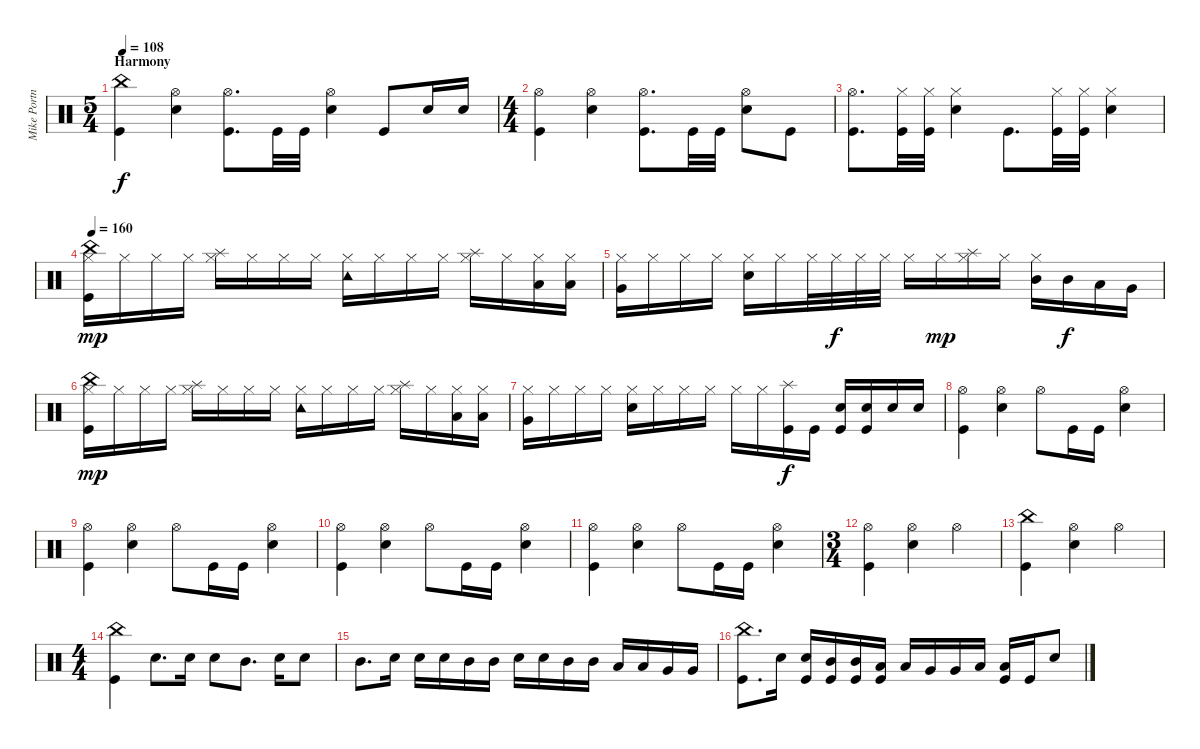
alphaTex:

\track ("Mike Portnoy (Drums)" "Mike Portn") {instrument percussion}
\staff {score}
\articulation defaults
\ts (5 4)
\section ("" "Harmony")
\tempo 108
\clef neutral
\ks c
("Kick (hit)" "China (hit)").4{dy f} ("Snare (hit) 2" "Hi-Hat (open)").4 ("Kick (hit)" "Hi-Hat (open)").8{d} "Kick (hit)".32 "Kick (hit)".32 ("Snare (hit) 2" "Hi-Hat (open)").4 "Kick (hit)".8 "Snare (hit) 2".16 "Snare (hit) 2".16 |
\ts (4 4)
("Kick (hit)" "Hi-Hat (open)").4 ("Snare (hit) 2" "Hi-Hat (open)").4 ("Kick (hit)" "Hi-Hat (open)").8{d} "Kick (hit)".32 "Kick (hit)".32 ("Snare (hit) 2" "Hi-Hat (open)").8 "Kick (hit)".8 |
("Kick (hit)" "Hi-Hat (open)").8{d} ("Kick (hit)" "Hi-Hat (closed)").32 ("Kick (hit)" "Hi-Hat (closed)").32 ("Snare (hit) 2" "Hi-Hat (closed)").4 "Kick (hit)".8{d} ("Kick (hit)" "Hi-Hat (closed)").32 ("Kick (hit)" "Hi-Hat (closed)").32 ("Snare (hit) 2" "Hi-Hat (closed)").4 |
\tempo 160
("Hi-Hat (closed)" "Kick (hit)" "China (hit)").16{dy mp} "Hi-Hat (closed)".16 "Hi-Hat (closed)".16 "Hi-Hat (closed)".16 ("Hi-Hat (closed)" "Splash (hit)").16 "Hi-Hat (closed)".16 "Hi-Hat (closed)".16 "Hi-Hat (closed)".16 ("Hi-Hat (closed)" "Tambourine (hit)").16 "Hi-Hat (closed)".16 "Hi-Hat (closed)".16 "Hi-Hat (closed)".16 ("Hi-Hat (closed)" "Splash (hit)").16 "Hi-Hat (closed)".16 ("Hi-Hat (closed)" "Low Tom (hit)").16 ("Hi-Hat (closed)" "Low Tom (hit)").16 |
("Hi-Hat (closed)" "Very Low Tom (hit)").16 "Hi-Hat (closed)".16 "Hi-Hat (closed)".16 "Hi-Hat (closed)".16 ("Hi-Hat (closed)" "Snare (hit) 2").16 "Hi-Hat (closed)".16 "Hi-Hat (closed)".32 "Hi-Hat (closed)".32{dy f} "Hi-Hat (closed)".32 "Hi-Hat (closed)".32 "Hi-Hat (closed)".16 "Hi-Hat (closed)".16{dy mp} ("Hi-Hat (closed)" "Splash (hit)").16 "Hi-Hat (closed)".16 ("Hi-Hat (closed)" "Mid Tom (hit)").16 "Mid Tom (hit)".16{dy f} "Low Tom (hit)".16 "Very Low Tom (hit)".16 |
("Hi-Hat (closed)" "Kick (hit)" "China (hit)").16{dy mp} "Hi-Hat (closed)".16 "Hi-Hat (closed)".16 "Hi-Hat (closed)".16 ("Hi-Hat (closed)" "Splash (hit)").16 "Hi-Hat (closed)".16 "Hi-Hat (closed)".16 "Hi-Hat (closed)".16 ("Hi-Hat (closed)" "Tambourine (hit)").16 "Hi-Hat (closed)".16 "Hi-Hat (closed)".16 "Hi-Hat (closed)".16 ("Hi-Hat (closed)" "Splash (hit)").16 "Hi-Hat (closed)".16 ("Hi-Hat (closed)" "Low Tom (hit)").16 ("Hi-Hat (closed)" "Low Tom (hit)").16 |
("Hi-Hat (closed)" "Very Low Tom (hit)").16 "Hi-Hat (closed)".16 "Hi-Hat (closed)".16 "Hi-Hat (closed)".16 ("Hi-Hat (closed)" "Snare (hit) 2").16 "Hi-Hat (closed)".16 "Hi-Hat (closed)".16 "Hi-Hat (closed)".16 "Hi-Hat (closed)".16 "Hi-Hat (closed)".16 ("Kick (hit)" "Splash (hit)").16{dy f} "Kick (hit)".16 ("Kick (hit)" "Snare (hit) 2").16 ("Kick (hit)" "Snare (hit) 2").16 "Snare (hit) 2".16 "Snare (hit) 2".16 |
("Kick (hit)" "Hi-Hat (open)").4 ("Snare (hit) 2" "Hi-Hat (open)").4 "Hi-Hat (open)".8 "Kick (hit)".16 "Kick (hit)".16 ("Snare (hit) 2" "Hi-Hat (open)").4 |
("Kick (hit)" "Hi-Hat (open)").4 ("Snare (hit) 2" "Hi-Hat (open)").4 "Hi-Hat (open)".8 "Kick (hit)".16 "Kick (hit)".16 ("Snare (hit) 2" "Hi-Hat (open)").4 |
("Kick (hit)" "Hi-Hat (open)").4 ("Snare (hit) 2" "Hi-Hat (open)").4 "Hi-Hat (open)".8 "Kick (hit)".16 "Kick (hit)".16 ("Snare (hit) 2" "Hi-Hat (open)").4 |
("Kick (hit)" "Hi-Hat (open)").4 ("Snare (hit) 2" "Hi-Hat (open)").4 "Hi-Hat (open)".8 "Kick (hit)".16 "Kick (hit)".16 ("Snare (hit) 2" "Hi-Hat (open)").4 |
\ts (3 4)
("Kick (hit)" "Hi-Hat (open)").4 ("Snare (hit) 2" "Hi-Hat (open)").4 "Hi-Hat (open)".4 |
("Kick (hit)" "China (hit)").4 ("Snare (hit) 2" "Hi-Hat (open)").4 "Hi-Hat (open)".4 |
\ts (4 4)
("China (hit)" "Kick (hit)").4 "Snare (hit) 2".8{d} "Snare (hit) 2".16 "Snare (hit) 2".8 "Mid Tom (hit)".8{d} "Snare (hit) 2".16 "Snare (hit) 2".8 |
"Mid Tom (hit)".8{d} "Snare (hit) 2".16 "Snare (hit) 2".16 "Snare (hit) 2".16 "Mid Tom (hit)".16 "Mid Tom (hit)".16 "Snare (hit) 2".16 "Snare (hit) 2".16 "Mid Tom (hit)".16 "Mid Tom (hit)".16 "Low Tom (hit)".16 "Low Tom (hit)".16 "Very Low Tom (hit)".16 "Very Low Tom (hit)".16 |
("China (hit)" "Kick (hit)").8{d} "Snare (hit) 2".16 ("Snare (hit) 2" "Kick (hit)").16 ("Mid Tom (hit)" "Kick (hit)").16 ("Mid Tom (hit)" "Kick (hit)").16 ("Low Tom (hit)" "Kick (hit)").16 "Low Tom (hit)".16 "Very Low Tom (hit)".16 "Very Low Tom (hit)".16 "Low Floor Tom (hit)".16 ("Low Floor Tom (hit)" "Kick (hit)").16 "Kick (hit)".16 "Snare (hit) 2".8
